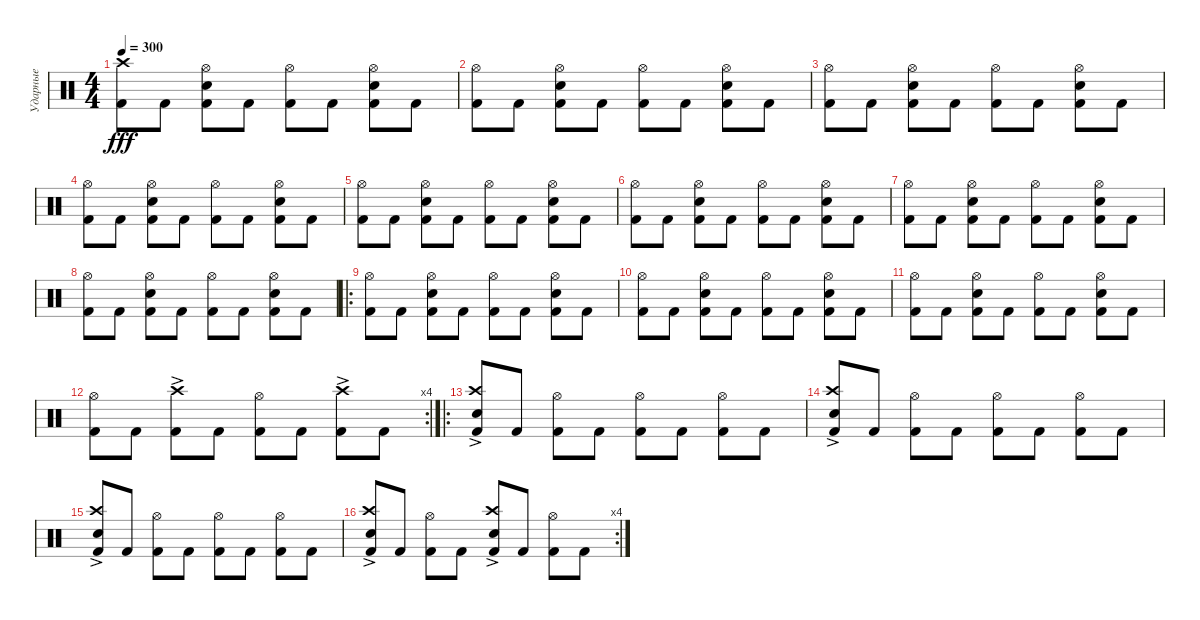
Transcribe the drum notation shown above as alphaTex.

\track ("Ударные" "Ударные") {instrument percussion}
\staff {score}
\articulation defaults
\ts (4 4)
\tempo 300
\clef neutral
\ks c
("Kick (hit) 2" "Crash high (hit)").8{dy fff} "Kick (hit) 2".8 ("Kick (hit) 2" "Snare (hit) 2" "Hi-Hat (open)").8 "Kick (hit) 2".8 ("Kick (hit) 2" "Hi-Hat (open)").8 "Kick (hit) 2".8 ("Kick (hit) 2" "Snare (hit) 2" "Hi-Hat (open)").8 "Kick (hit) 2".8 |
("Kick (hit) 2" "Hi-Hat (open)").8 "Kick (hit) 2".8 ("Kick (hit) 2" "Snare (hit) 2" "Hi-Hat (open)").8 "Kick (hit) 2".8 ("Kick (hit) 2" "Hi-Hat (open)").8 "Kick (hit) 2".8 ("Kick (hit) 2" "Snare (hit) 2" "Hi-Hat (open)").8 "Kick (hit) 2".8 |
("Kick (hit) 2" "Hi-Hat (open)").8 "Kick (hit) 2".8 ("Kick (hit) 2" "Snare (hit) 2" "Hi-Hat (open)").8 "Kick (hit) 2".8 ("Kick (hit) 2" "Hi-Hat (open)").8 "Kick (hit) 2".8 ("Kick (hit) 2" "Snare (hit) 2" "Hi-Hat (open)").8 "Kick (hit) 2".8 |
("Kick (hit) 2" "Hi-Hat (open)").8 "Kick (hit) 2".8 ("Kick (hit) 2" "Snare (hit) 2" "Hi-Hat (open)").8 "Kick (hit) 2".8 ("Kick (hit) 2" "Hi-Hat (open)").8 "Kick (hit) 2".8 ("Kick (hit) 2" "Snare (hit) 2" "Hi-Hat (open)").8 "Kick (hit) 2".8 |
("Kick (hit) 2" "Hi-Hat (open)").8 "Kick (hit) 2".8 ("Kick (hit) 2" "Snare (hit) 2" "Hi-Hat (open)").8 "Kick (hit) 2".8 ("Kick (hit) 2" "Hi-Hat (open)").8 "Kick (hit) 2".8 ("Kick (hit) 2" "Snare (hit) 2" "Hi-Hat (open)").8 "Kick (hit) 2".8 |
("Kick (hit) 2" "Hi-Hat (open)").8 "Kick (hit) 2".8 ("Kick (hit) 2" "Snare (hit) 2" "Hi-Hat (open)").8 "Kick (hit) 2".8 ("Kick (hit) 2" "Hi-Hat (open)").8 "Kick (hit) 2".8 ("Kick (hit) 2" "Snare (hit) 2" "Hi-Hat (open)").8 "Kick (hit) 2".8 |
("Kick (hit) 2" "Hi-Hat (open)").8 "Kick (hit) 2".8 ("Kick (hit) 2" "Snare (hit) 2" "Hi-Hat (open)").8 "Kick (hit) 2".8 ("Kick (hit) 2" "Hi-Hat (open)").8 "Kick (hit) 2".8 ("Kick (hit) 2" "Snare (hit) 2" "Hi-Hat (open)").8 "Kick (hit) 2".8 |
("Kick (hit) 2" "Hi-Hat (open)").8 "Kick (hit) 2".8 ("Kick (hit) 2" "Snare (hit) 2" "Hi-Hat (open)").8 "Kick (hit) 2".8 ("Kick (hit) 2" "Hi-Hat (open)").8 "Kick (hit) 2".8 ("Kick (hit) 2" "Snare (hit) 2" "Hi-Hat (open)").8 "Kick (hit) 2".8 |
\ro
("Kick (hit) 2" "Hi-Hat (open)").8 "Kick (hit) 2".8 ("Kick (hit) 2" "Snare (hit) 2" "Hi-Hat (open)").8 "Kick (hit) 2".8 ("Kick (hit) 2" "Hi-Hat (open)").8 "Kick (hit) 2".8 ("Kick (hit) 2" "Snare (hit) 2" "Hi-Hat (open)").8 "Kick (hit) 2".8 |
("Kick (hit) 2" "Hi-Hat (open)").8 "Kick (hit) 2".8 ("Kick (hit) 2" "Snare (hit) 2" "Hi-Hat (open)").8 "Kick (hit) 2".8 ("Kick (hit) 2" "Hi-Hat (open)").8 "Kick (hit) 2".8 ("Kick (hit) 2" "Snare (hit) 2" "Hi-Hat (open)").8 "Kick (hit) 2".8 |
("Kick (hit) 2" "Hi-Hat (open)").8 "Kick (hit) 2".8 ("Kick (hit) 2" "Snare (hit) 2" "Hi-Hat (open)").8 "Kick (hit) 2".8 ("Kick (hit) 2" "Hi-Hat (open)").8 "Kick (hit) 2".8 ("Kick (hit) 2" "Snare (hit) 2" "Hi-Hat (open)").8 "Kick (hit) 2".8 |
\rc 4
("Kick (hit) 2" "Hi-Hat (open)").8 "Kick (hit) 2".8 ("Kick (hit) 2" "Crash high (hit)"{ac}).8 "Kick (hit) 2".8 ("Kick (hit) 2" "Hi-Hat (open)").8 "Kick (hit) 2".8 ("Kick (hit) 2" "Crash high (hit)"{ac}).8 "Kick (hit) 2".8 |
\ro
("Kick (hit) 2" "Snare (hit) 2" "Crash high (hit)"{ac}).8 "Kick (hit) 2".8 ("Kick (hit) 2" "Hi-Hat (open)").8 "Kick (hit) 2".8 ("Kick (hit) 2" "Hi-Hat (open)").8 "Kick (hit) 2".8 ("Kick (hit) 2" "Hi-Hat (open)").8 "Kick (hit) 2".8 |
("Kick (hit) 2" "Snare (hit) 2" "Crash high (hit)"{ac}).8 "Kick (hit) 2".8 ("Kick (hit) 2" "Hi-Hat (open)").8 "Kick (hit) 2".8 ("Kick (hit) 2" "Hi-Hat (open)").8 "Kick (hit) 2".8 ("Kick (hit) 2" "Hi-Hat (open)").8 "Kick (hit) 2".8 |
("Kick (hit) 2" "Snare (hit) 2" "Crash high (hit)"{ac}).8 "Kick (hit) 2".8 ("Kick (hit) 2" "Hi-Hat (open)").8 "Kick (hit) 2".8 ("Kick (hit) 2" "Hi-Hat (open)").8 "Kick (hit) 2".8 ("Kick (hit) 2" "Hi-Hat (open)").8 "Kick (hit) 2".8 |
\rc 4
("Kick (hit) 2" "Snare (hit) 2" "Crash high (hit)"{ac}).8 "Kick (hit) 2".8 ("Kick (hit) 2" "Hi-Hat (open)").8 "Kick (hit) 2".8 ("Kick (hit) 2" "Snare (hit) 2" "Crash high (hit)"{ac}).8 "Kick (hit) 2".8 ("Kick (hit) 2" "Hi-Hat (open)").8 "Kick (hit) 2".8
